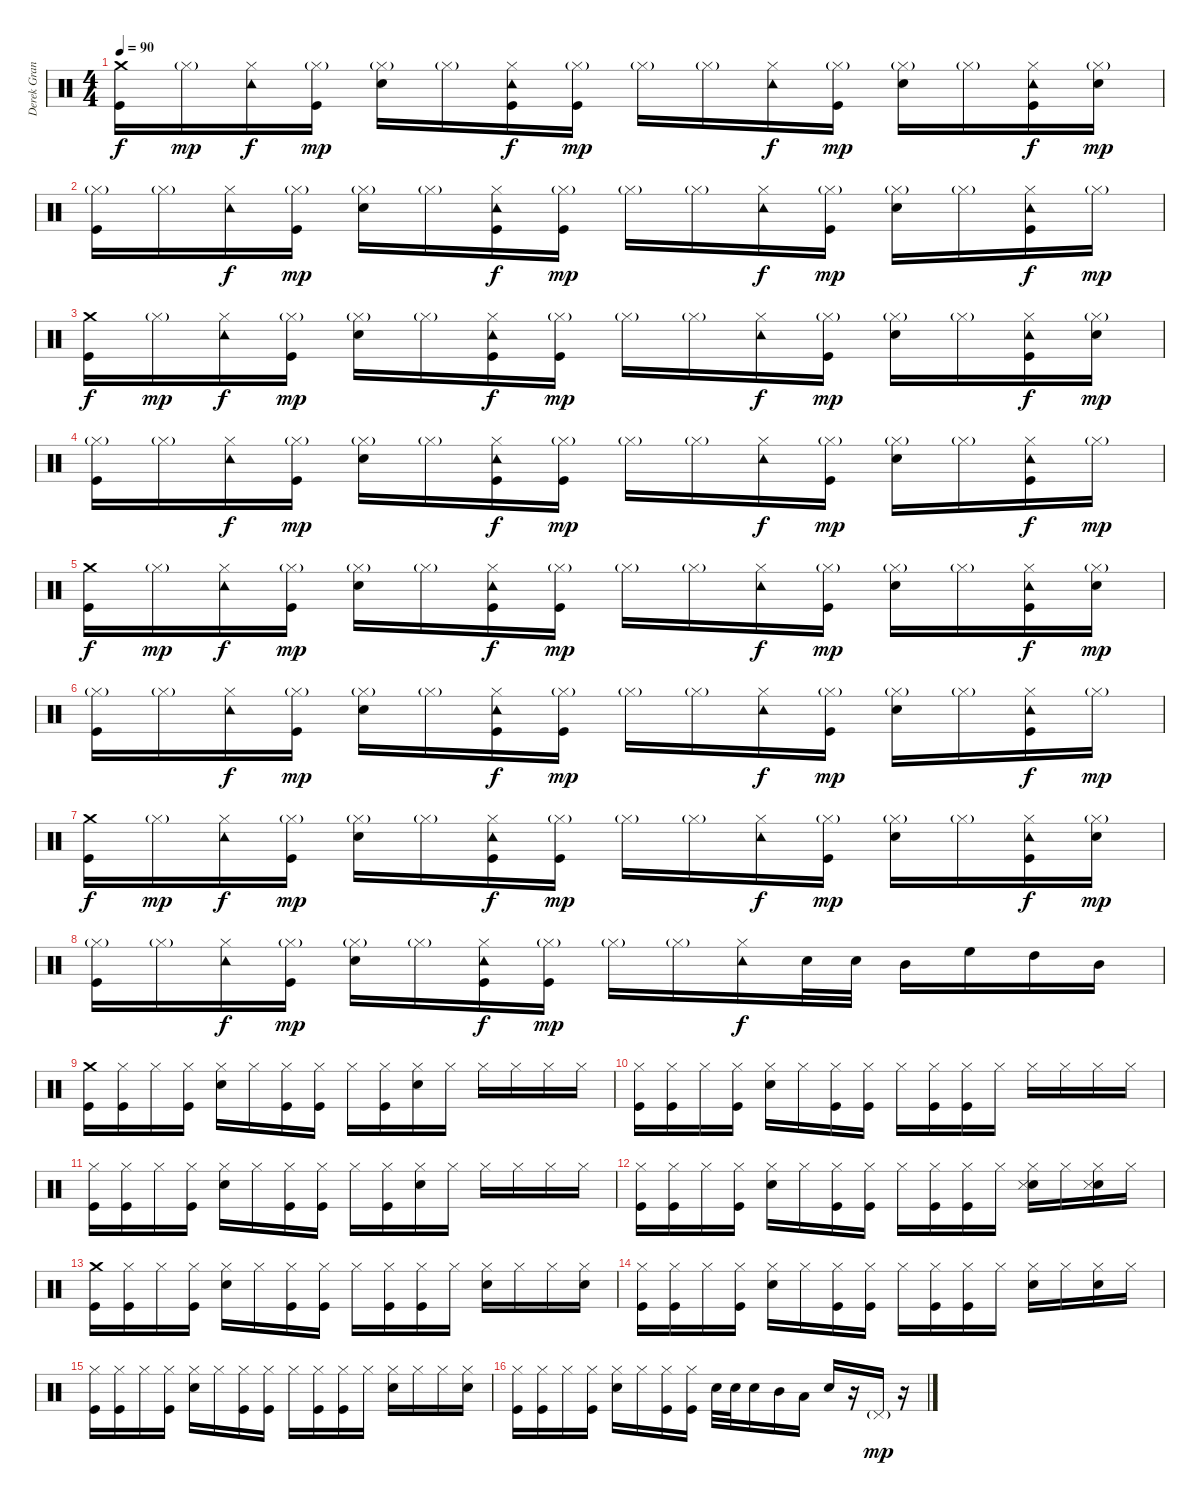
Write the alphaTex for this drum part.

\track ("Derek Grant" "Derek Gran") {instrument percussion}
\staff {score}
\articulation defaults
\ts (4 4)
\tempo 90
\clef neutral
\ks c
("Crash medium (hit)" "Kick (hit)").16{dy f} "Hi-Hat (closed)"{g}.16{dy mp} ("Tambourine (hit)" "Hi-Hat (closed)").16{dy f} ("Hi-Hat (closed)"{g} "Kick (hit)").16{dy mp} ("Hi-Hat (closed)"{g} "Electric Snare (hit)").16 "Hi-Hat (closed)"{g}.16 ("Tambourine (hit)" "Hi-Hat (closed)" "Kick (hit)").16{dy f} ("Hi-Hat (closed)"{g} "Kick (hit)").16{dy mp} "Hi-Hat (closed)"{g}.16 "Hi-Hat (closed)"{g}.16 ("Tambourine (hit)" "Hi-Hat (closed)").16{dy f} ("Hi-Hat (closed)"{g} "Kick (hit)").16{dy mp} ("Hi-Hat (closed)"{g} "Electric Snare (hit)").16 "Hi-Hat (closed)"{g}.16 ("Tambourine (hit)" "Hi-Hat (closed)" "Kick (hit)").16{dy f} ("Hi-Hat (closed)"{g} "Electric Snare (hit)").16{dy mp} |
("Hi-Hat (closed)"{g} "Kick (hit)").16 "Hi-Hat (closed)"{g}.16 ("Tambourine (hit)" "Hi-Hat (closed)").16{dy f} ("Hi-Hat (closed)"{g} "Kick (hit)").16{dy mp} ("Hi-Hat (closed)"{g} "Electric Snare (hit)").16 "Hi-Hat (closed)"{g}.16 ("Tambourine (hit)" "Hi-Hat (closed)" "Kick (hit)").16{dy f} ("Hi-Hat (closed)"{g} "Kick (hit)").16{dy mp} "Hi-Hat (closed)"{g}.16 "Hi-Hat (closed)"{g}.16 ("Tambourine (hit)" "Hi-Hat (closed)").16{dy f} ("Hi-Hat (closed)"{g} "Kick (hit)").16{dy mp} ("Hi-Hat (closed)"{g} "Electric Snare (hit)").16 "Hi-Hat (closed)"{g}.16 ("Tambourine (hit)" "Hi-Hat (closed)" "Kick (hit)").16{dy f} "Hi-Hat (closed)"{g}.16{dy mp} |
("Crash medium (hit)" "Kick (hit)").16{dy f} "Hi-Hat (closed)"{g}.16{dy mp} ("Tambourine (hit)" "Hi-Hat (closed)").16{dy f} ("Hi-Hat (closed)"{g} "Kick (hit)").16{dy mp} ("Hi-Hat (closed)"{g} "Electric Snare (hit)").16 "Hi-Hat (closed)"{g}.16 ("Tambourine (hit)" "Hi-Hat (closed)" "Kick (hit)").16{dy f} ("Hi-Hat (closed)"{g} "Kick (hit)").16{dy mp} "Hi-Hat (closed)"{g}.16 "Hi-Hat (closed)"{g}.16 ("Tambourine (hit)" "Hi-Hat (closed)").16{dy f} ("Hi-Hat (closed)"{g} "Kick (hit)").16{dy mp} ("Hi-Hat (closed)"{g} "Electric Snare (hit)").16 "Hi-Hat (closed)"{g}.16 ("Tambourine (hit)" "Hi-Hat (closed)" "Kick (hit)").16{dy f} ("Hi-Hat (closed)"{g} "Electric Snare (hit)").16{dy mp} |
("Hi-Hat (closed)"{g} "Kick (hit)").16 "Hi-Hat (closed)"{g}.16 ("Tambourine (hit)" "Hi-Hat (closed)").16{dy f} ("Hi-Hat (closed)"{g} "Kick (hit)").16{dy mp} ("Hi-Hat (closed)"{g} "Electric Snare (hit)").16 "Hi-Hat (closed)"{g}.16 ("Tambourine (hit)" "Hi-Hat (closed)" "Kick (hit)").16{dy f} ("Hi-Hat (closed)"{g} "Kick (hit)").16{dy mp} "Hi-Hat (closed)"{g}.16 "Hi-Hat (closed)"{g}.16 ("Tambourine (hit)" "Hi-Hat (closed)").16{dy f} ("Hi-Hat (closed)"{g} "Kick (hit)").16{dy mp} ("Hi-Hat (closed)"{g} "Electric Snare (hit)").16 "Hi-Hat (closed)"{g}.16 ("Tambourine (hit)" "Hi-Hat (closed)" "Kick (hit)").16{dy f} "Hi-Hat (closed)"{g}.16{dy mp} |
("Crash medium (hit)" "Kick (hit)").16{dy f} "Hi-Hat (closed)"{g}.16{dy mp} ("Tambourine (hit)" "Hi-Hat (closed)").16{dy f} ("Hi-Hat (closed)"{g} "Kick (hit)").16{dy mp} ("Hi-Hat (closed)"{g} "Electric Snare (hit)").16 "Hi-Hat (closed)"{g}.16 ("Tambourine (hit)" "Hi-Hat (closed)" "Kick (hit)").16{dy f} ("Hi-Hat (closed)"{g} "Kick (hit)").16{dy mp} "Hi-Hat (closed)"{g}.16 "Hi-Hat (closed)"{g}.16 ("Tambourine (hit)" "Hi-Hat (closed)").16{dy f} ("Hi-Hat (closed)"{g} "Kick (hit)").16{dy mp} ("Hi-Hat (closed)"{g} "Electric Snare (hit)").16 "Hi-Hat (closed)"{g}.16 ("Tambourine (hit)" "Hi-Hat (closed)" "Kick (hit)").16{dy f} ("Hi-Hat (closed)"{g} "Electric Snare (hit)").16{dy mp} |
("Hi-Hat (closed)"{g} "Kick (hit)").16 "Hi-Hat (closed)"{g}.16 ("Tambourine (hit)" "Hi-Hat (closed)").16{dy f} ("Hi-Hat (closed)"{g} "Kick (hit)").16{dy mp} ("Hi-Hat (closed)"{g} "Electric Snare (hit)").16 "Hi-Hat (closed)"{g}.16 ("Tambourine (hit)" "Hi-Hat (closed)" "Kick (hit)").16{dy f} ("Hi-Hat (closed)"{g} "Kick (hit)").16{dy mp} "Hi-Hat (closed)"{g}.16 "Hi-Hat (closed)"{g}.16 ("Tambourine (hit)" "Hi-Hat (closed)").16{dy f} ("Hi-Hat (closed)"{g} "Kick (hit)").16{dy mp} ("Hi-Hat (closed)"{g} "Electric Snare (hit)").16 "Hi-Hat (closed)"{g}.16 ("Tambourine (hit)" "Hi-Hat (closed)" "Kick (hit)").16{dy f} "Hi-Hat (closed)"{g}.16{dy mp} |
("Crash medium (hit)" "Kick (hit)").16{dy f} "Hi-Hat (closed)"{g}.16{dy mp} ("Tambourine (hit)" "Hi-Hat (closed)").16{dy f} ("Hi-Hat (closed)"{g} "Kick (hit)").16{dy mp} ("Hi-Hat (closed)"{g} "Electric Snare (hit)").16 "Hi-Hat (closed)"{g}.16 ("Tambourine (hit)" "Hi-Hat (closed)" "Kick (hit)").16{dy f} ("Hi-Hat (closed)"{g} "Kick (hit)").16{dy mp} "Hi-Hat (closed)"{g}.16 "Hi-Hat (closed)"{g}.16 ("Tambourine (hit)" "Hi-Hat (closed)").16{dy f} ("Hi-Hat (closed)"{g} "Kick (hit)").16{dy mp} ("Hi-Hat (closed)"{g} "Electric Snare (hit)").16 "Hi-Hat (closed)"{g}.16 ("Tambourine (hit)" "Hi-Hat (closed)" "Kick (hit)").16{dy f} ("Hi-Hat (closed)"{g} "Electric Snare (hit)").16{dy mp} |
("Hi-Hat (closed)"{g} "Kick (hit)").16 "Hi-Hat (closed)"{g}.16 ("Tambourine (hit)" "Hi-Hat (closed)").16{dy f} ("Hi-Hat (closed)"{g} "Kick (hit)").16{dy mp} ("Hi-Hat (closed)"{g} "Electric Snare (hit)").16 "Hi-Hat (closed)"{g}.16 ("Tambourine (hit)" "Hi-Hat (closed)" "Kick (hit)").16{dy f} ("Hi-Hat (closed)"{g} "Kick (hit)").16{dy mp} "Hi-Hat (closed)"{g}.16 "Hi-Hat (closed)"{g}.16 ("Tambourine (hit)" "Hi-Hat (closed)").16{dy f} "Electric Snare (hit)".32 "Electric Snare (hit)".32 "Mid Tom (hit)".16 "High Floor Tom (hit)".16 "High Tom (hit)".16 "Mid Tom (hit)".16 |
("Crash medium (hit)" "Kick (hit)").16 ("Hi-Hat (closed)" "Kick (hit)").16 "Hi-Hat (closed)".16 ("Hi-Hat (closed)" "Kick (hit)").16 ("Hi-Hat (closed)" "Electric Snare (hit)").16 "Hi-Hat (closed)".16 ("Hi-Hat (closed)" "Kick (hit)").16 ("Hi-Hat (closed)" "Kick (hit)").16 "Hi-Hat (closed)".16 ("Hi-Hat (closed)" "Kick (hit)").16 ("Hi-Hat (closed)" "Electric Snare (hit)").16 "Hi-Hat (closed)".16 "Hi-Hat (closed)".16 "Hi-Hat (closed)".16 "Hi-Hat (closed)".16 "Hi-Hat (closed)".16 |
("Hi-Hat (closed)" "Kick (hit)").16 ("Hi-Hat (closed)" "Kick (hit)").16 "Hi-Hat (closed)".16 ("Hi-Hat (closed)" "Kick (hit)").16 ("Hi-Hat (closed)" "Electric Snare (hit)").16 "Hi-Hat (closed)".16 ("Hi-Hat (closed)" "Kick (hit)").16 ("Hi-Hat (closed)" "Kick (hit)").16 "Hi-Hat (closed)".16 ("Hi-Hat (closed)" "Kick (hit)").16 ("Hi-Hat (closed)" "Kick (hit)").16 "Hi-Hat (closed)".16 "Hi-Hat (closed)".16 "Hi-Hat (closed)".16 "Hi-Hat (closed)".16 "Hi-Hat (closed)".16 |
("Hi-Hat (closed)" "Kick (hit)").16 ("Hi-Hat (closed)" "Kick (hit)").16 "Hi-Hat (closed)".16 ("Hi-Hat (closed)" "Kick (hit)").16 ("Hi-Hat (closed)" "Electric Snare (hit)").16 "Hi-Hat (closed)".16 ("Hi-Hat (closed)" "Kick (hit)").16 ("Hi-Hat (closed)" "Kick (hit)").16 "Hi-Hat (closed)".16 ("Hi-Hat (closed)" "Kick (hit)").16 ("Hi-Hat (closed)" "Electric Snare (hit)").16 "Hi-Hat (closed)".16 "Hi-Hat (closed)".16 "Hi-Hat (closed)".16 "Hi-Hat (closed)".16 "Hi-Hat (closed)".16 |
("Hi-Hat (closed)" "Kick (hit)").16 ("Hi-Hat (closed)" "Kick (hit)").16 "Hi-Hat (closed)".16 ("Hi-Hat (closed)" "Kick (hit)").16 ("Hi-Hat (closed)" "Electric Snare (hit)").16 "Hi-Hat (closed)".16 ("Hi-Hat (closed)" "Kick (hit)").16 ("Hi-Hat (closed)" "Kick (hit)").16 "Hi-Hat (closed)".16 ("Hi-Hat (closed)" "Kick (hit)").16 ("Hi-Hat (closed)" "Kick (hit)").16 "Hi-Hat (closed)".16 ("Hand Clap (hit)" "Hi-Hat (closed)" "Metronome (hit)").16 "Hi-Hat (closed)".16 ("Hand Clap (hit)" "Hi-Hat (closed)" "Metronome (hit)").16 "Hi-Hat (closed)".16 |
("Crash medium (hit)" "Kick (hit)").16 ("Hi-Hat (closed)" "Kick (hit)").16 "Hi-Hat (closed)".16 ("Hi-Hat (closed)" "Kick (hit)").16 ("Hi-Hat (closed)" "Electric Snare (hit)").16 "Hi-Hat (closed)".16 ("Hi-Hat (closed)" "Kick (hit)").16 ("Hi-Hat (closed)" "Kick (hit)").16 "Hi-Hat (closed)".16 ("Hi-Hat (closed)" "Kick (hit)").16 ("Hi-Hat (closed)" "Kick (hit)").16 "Hi-Hat (closed)".16 ("Hi-Hat (closed)" "Electric Snare (hit)").16 "Hi-Hat (closed)".16 "Hi-Hat (closed)".16 ("Hi-Hat (closed)" "Electric Snare (hit)").16 |
("Hi-Hat (closed)" "Kick (hit)").16 ("Hi-Hat (closed)" "Kick (hit)").16 "Hi-Hat (closed)".16 ("Hi-Hat (closed)" "Kick (hit)").16 ("Hi-Hat (closed)" "Electric Snare (hit)").16 "Hi-Hat (closed)".16 ("Hi-Hat (closed)" "Kick (hit)").16 ("Hi-Hat (closed)" "Kick (hit)").16 "Hi-Hat (closed)".16 ("Hi-Hat (closed)" "Kick (hit)").16 ("Hi-Hat (closed)" "Kick (hit)").16 "Hi-Hat (closed)".16 ("Hi-Hat (closed)" "Electric Snare (hit)").16 "Hi-Hat (closed)".16 ("Hi-Hat (closed)" "Electric Snare (hit)").16 "Hi-Hat (closed)".16 |
("Hi-Hat (closed)" "Kick (hit)").16 ("Hi-Hat (closed)" "Kick (hit)").16 "Hi-Hat (closed)".16 ("Hi-Hat (closed)" "Kick (hit)").16 ("Hi-Hat (closed)" "Electric Snare (hit)").16 "Hi-Hat (closed)".16 ("Hi-Hat (closed)" "Kick (hit)").16 ("Hi-Hat (closed)" "Kick (hit)").16 "Hi-Hat (closed)".16 ("Hi-Hat (closed)" "Kick (hit)").16 ("Hi-Hat (closed)" "Kick (hit)").16 "Hi-Hat (closed)".16 ("Hi-Hat (closed)" "Electric Snare (hit)").16 "Hi-Hat (closed)".16 "Hi-Hat (closed)".16 ("Hi-Hat (closed)" "Electric Snare (hit)").16 |
("Hi-Hat (closed)" "Kick (hit)").16 ("Hi-Hat (closed)" "Kick (hit)").16 "Hi-Hat (closed)".16 ("Hi-Hat (closed)" "Kick (hit)").16 ("Hi-Hat (closed)" "Electric Snare (hit)").16 "Hi-Hat (closed)".16 ("Hi-Hat (closed)" "Kick (hit)").16 ("Hi-Hat (closed)" "Kick (hit)").16 "Electric Snare (hit)".32 "Electric Snare (hit)".32 "Electric Snare (hit)".16 "Mid Tom (hit)".16 "Low Tom (hit)".16 "Electric Snare (hit)".16 r.16 "Pedal Hi-Hat (hit)"{g}.16{dy mp} r.16
